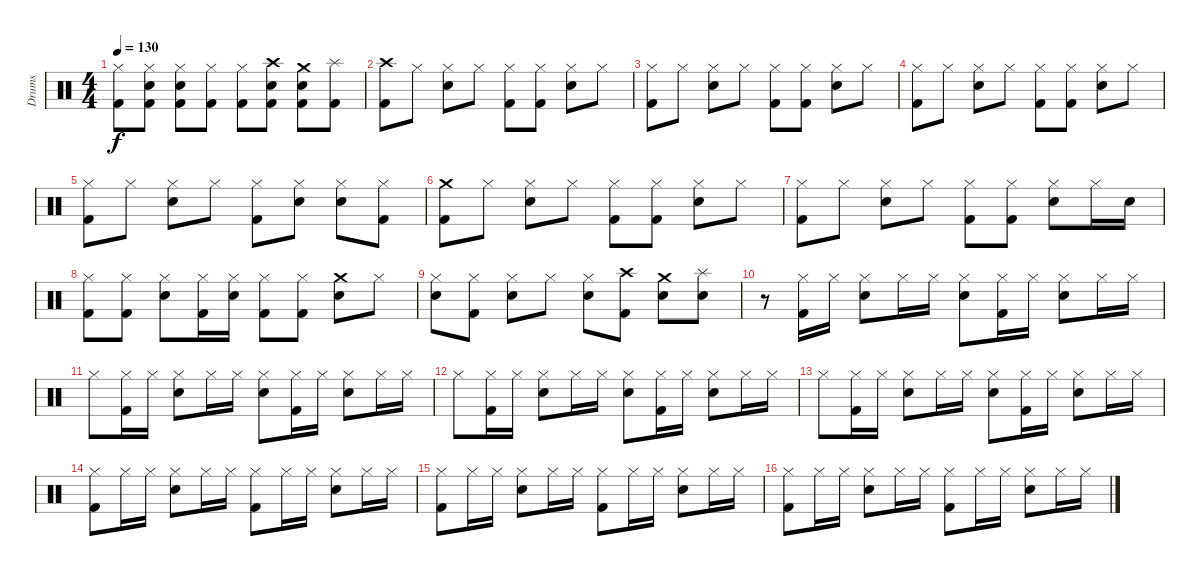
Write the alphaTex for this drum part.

\track ("Drums" "Drums") {instrument percussion}
\staff {score}
\articulation defaults
\ts (4 4)
\tempo 130
\clef neutral
\ks c
("Hi-Hat (closed)" "Kick (hit) 2").8{dy f} ("Hi-Hat (closed)" "Electric Snare (hit)" "Kick (hit) 2").8 ("Hi-Hat (closed)" "Electric Snare (hit)" "Kick (hit) 2").8 ("Hi-Hat (closed)" "Kick (hit) 2").8 ("Hi-Hat (closed)" "Kick (hit) 2").8 ("Crash high (hit)" "Electric Snare (hit)" "Kick (hit) 2").8 ("Crash medium (hit)" "Electric Snare (hit)" "Kick (hit) 2").8 ("Splash (hit)" "Kick (hit) 2").8 |
("Crash high (hit)" "Kick (hit) 2").8 "Hi-Hat (closed)".8 ("Hi-Hat (closed)" "Electric Snare (hit)").8 "Hi-Hat (closed)".8 ("Hi-Hat (closed)" "Kick (hit) 2").8 ("Hi-Hat (closed)" "Kick (hit) 2").8 ("Hi-Hat (closed)" "Electric Snare (hit)").8 "Hi-Hat (closed)".8 |
("Hi-Hat (closed)" "Kick (hit) 2").8 "Hi-Hat (closed)".8 ("Hi-Hat (closed)" "Electric Snare (hit)").8 "Hi-Hat (closed)".8 ("Hi-Hat (closed)" "Kick (hit) 2").8 ("Hi-Hat (closed)" "Kick (hit) 2").8 ("Hi-Hat (closed)" "Electric Snare (hit)").8 "Hi-Hat (closed)".8 |
("Hi-Hat (closed)" "Kick (hit) 2").8 "Hi-Hat (closed)".8 ("Hi-Hat (closed)" "Electric Snare (hit)").8 "Hi-Hat (closed)".8 ("Hi-Hat (closed)" "Kick (hit) 2").8 ("Hi-Hat (closed)" "Kick (hit) 2").8 ("Hi-Hat (closed)" "Electric Snare (hit)").8 "Hi-Hat (closed)".8 |
("Hi-Hat (closed)" "Kick (hit) 2").8 "Hi-Hat (closed)".8 ("Hi-Hat (closed)" "Electric Snare (hit)").8 "Hi-Hat (closed)".8 ("Hi-Hat (closed)" "Kick (hit) 2").8 ("Hi-Hat (closed)" "Electric Snare (hit)").8 ("Hi-Hat (closed)" "Electric Snare (hit)").8 ("Hi-Hat (closed)" "Kick (hit) 2").8 |
("Crash medium (hit)" "Kick (hit) 2").8 "Hi-Hat (closed)".8 ("Hi-Hat (closed)" "Electric Snare (hit)").8 "Hi-Hat (closed)".8 ("Hi-Hat (closed)" "Kick (hit) 2").8 ("Hi-Hat (closed)" "Kick (hit) 2").8 ("Hi-Hat (closed)" "Electric Snare (hit)").8 "Hi-Hat (closed)".8 |
("Hi-Hat (closed)" "Kick (hit) 2").8 "Hi-Hat (closed)".8 ("Hi-Hat (closed)" "Electric Snare (hit)").8 "Hi-Hat (closed)".8 ("Hi-Hat (closed)" "Kick (hit) 2").8 ("Hi-Hat (closed)" "Kick (hit) 2").8 ("Hi-Hat (closed)" "Electric Snare (hit)").8 "Hi-Hat (closed)".16 "Electric Snare (hit)".16 |
("Hi-Hat (closed)" "Kick (hit) 2").8 ("Hi-Hat (closed)" "Kick (hit) 2").8 ("Hi-Hat (closed)" "Electric Snare (hit)").8 ("Hi-Hat (closed)" "Kick (hit) 2").16 ("Hi-Hat (closed)" "Electric Snare (hit)").16 ("Hi-Hat (closed)" "Kick (hit) 2").8 ("Hi-Hat (closed)" "Kick (hit) 2").8 ("Crash medium (hit)" "Electric Snare (hit)").8 "Hi-Hat (closed)".8 |
("Hi-Hat (closed)" "Electric Snare (hit)").8 ("Hi-Hat (closed)" "Kick (hit) 2").8 ("Hi-Hat (closed)" "Electric Snare (hit)").8 "Hi-Hat (closed)".8 ("Hi-Hat (closed)" "Electric Snare (hit)").8 ("Crash high (hit)" "Kick (hit) 2").8 ("Crash medium (hit)" "Electric Snare (hit)").8 ("Splash (hit)" "Electric Snare (hit)").8 |
r.8 ("Hi-Hat (closed)" "Kick (hit) 2").16 "Hi-Hat (closed)".16 ("Hi-Hat (closed)" "Electric Snare (hit)").8 "Hi-Hat (closed)".16 "Hi-Hat (closed)".16 ("Hi-Hat (closed)" "Electric Snare (hit)").8 ("Hi-Hat (closed)" "Kick (hit) 2").16 "Hi-Hat (closed)".16 ("Hi-Hat (closed)" "Electric Snare (hit)").8 "Hi-Hat (closed)".16 "Hi-Hat (closed)".16 |
"Hi-Hat (closed)".8 ("Hi-Hat (closed)" "Kick (hit) 2").16 "Hi-Hat (closed)".16 ("Hi-Hat (closed)" "Electric Snare (hit)").8 "Hi-Hat (closed)".16 "Hi-Hat (closed)".16 ("Hi-Hat (closed)" "Electric Snare (hit)").8 ("Hi-Hat (closed)" "Kick (hit) 2").16 "Hi-Hat (closed)".16 ("Hi-Hat (closed)" "Electric Snare (hit)").8 "Hi-Hat (closed)".16 "Hi-Hat (closed)".16 |
"Hi-Hat (closed)".8 ("Hi-Hat (closed)" "Kick (hit) 2").16 "Hi-Hat (closed)".16 ("Hi-Hat (closed)" "Electric Snare (hit)").8 "Hi-Hat (closed)".16 "Hi-Hat (closed)".16 ("Hi-Hat (closed)" "Electric Snare (hit)").8 ("Hi-Hat (closed)" "Kick (hit) 2").16 "Hi-Hat (closed)".16 ("Hi-Hat (closed)" "Electric Snare (hit)").8 "Hi-Hat (closed)".16 "Hi-Hat (closed)".16 |
"Hi-Hat (closed)".8 ("Hi-Hat (closed)" "Kick (hit) 2").16 "Hi-Hat (closed)".16 ("Hi-Hat (closed)" "Electric Snare (hit)").8 "Hi-Hat (closed)".16 "Hi-Hat (closed)".16 ("Hi-Hat (closed)" "Electric Snare (hit)").8 ("Hi-Hat (closed)" "Kick (hit) 2").16 "Hi-Hat (closed)".16 ("Hi-Hat (closed)" "Electric Snare (hit)").8 "Hi-Hat (closed)".16 "Hi-Hat (closed)".16 |
("Hi-Hat (closed)" "Kick (hit) 2").8 "Hi-Hat (closed)".16 "Hi-Hat (closed)".16 ("Hi-Hat (closed)" "Electric Snare (hit)").8 "Hi-Hat (closed)".16 "Hi-Hat (closed)".16 ("Hi-Hat (closed)" "Kick (hit) 2").8 "Hi-Hat (closed)".16 "Hi-Hat (closed)".16 ("Hi-Hat (closed)" "Electric Snare (hit)").8 "Hi-Hat (closed)".16 "Hi-Hat (closed)".16 |
("Hi-Hat (closed)" "Kick (hit) 2").8 "Hi-Hat (closed)".16 "Hi-Hat (closed)".16 ("Hi-Hat (closed)" "Electric Snare (hit)").8 "Hi-Hat (closed)".16 "Hi-Hat (closed)".16 ("Hi-Hat (closed)" "Kick (hit) 2").8 "Hi-Hat (closed)".16 "Hi-Hat (closed)".16 ("Hi-Hat (closed)" "Electric Snare (hit)").8 "Hi-Hat (closed)".16 "Hi-Hat (closed)".16 |
("Hi-Hat (closed)" "Kick (hit) 2").8 "Hi-Hat (closed)".16 "Hi-Hat (closed)".16 ("Hi-Hat (closed)" "Electric Snare (hit)").8 "Hi-Hat (closed)".16 "Hi-Hat (closed)".16 ("Hi-Hat (closed)" "Kick (hit) 2").8 "Hi-Hat (closed)".16 "Hi-Hat (closed)".16 ("Hi-Hat (closed)" "Electric Snare (hit)").8 "Hi-Hat (closed)".16 "Hi-Hat (closed)".16
